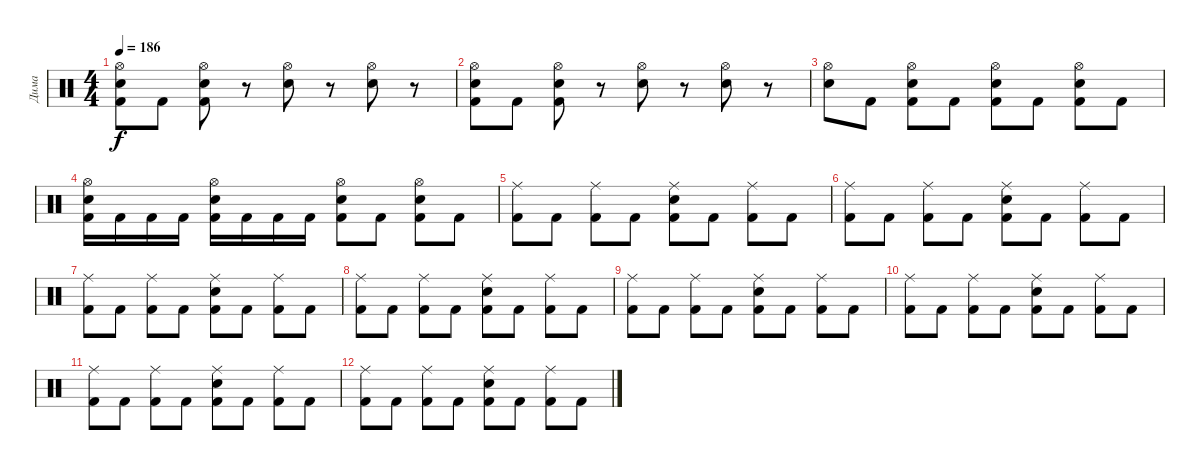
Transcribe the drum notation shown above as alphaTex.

\track ("Дима" "Дима") {instrument percussion}
\staff {score}
\articulation defaults
\ts (4 4)
\tempo 186
\clef neutral
\ks c
("Hi-Hat (open)" "Snare (hit) 2" "Kick (hit) 2").8{dy f} "Kick (hit) 2".8 ("Hi-Hat (open)" "Snare (hit) 2" "Kick (hit) 2").8 r.8 ("Hi-Hat (open)" "Snare (hit) 2").8 r.8 ("Hi-Hat (open)" "Snare (hit) 2").8 r.8 |
("Hi-Hat (open)" "Snare (hit) 2" "Kick (hit) 2").8 "Kick (hit) 2".8 ("Hi-Hat (open)" "Snare (hit) 2" "Kick (hit) 2").8 r.8 ("Hi-Hat (open)" "Snare (hit) 2").8 r.8 ("Hi-Hat (open)" "Snare (hit) 2").8 r.8 |
("Hi-Hat (open)" "Snare (hit) 2").8 "Kick (hit) 2".8 ("Hi-Hat (open)" "Snare (hit) 2" "Kick (hit) 2").8 "Kick (hit) 2".8 ("Hi-Hat (open)" "Snare (hit) 2" "Kick (hit) 2").8 "Kick (hit) 2".8 ("Hi-Hat (open)" "Snare (hit) 2" "Kick (hit) 2").8 "Kick (hit) 2".8 |
("Hi-Hat (open)" "Snare (hit) 2" "Kick (hit) 2").16 "Kick (hit) 2".16 "Kick (hit) 2".16 "Kick (hit) 2".16 ("Hi-Hat (open)" "Snare (hit) 2" "Kick (hit) 2").16 "Kick (hit) 2".16 "Kick (hit) 2".16 "Kick (hit) 2".16 ("Hi-Hat (open)" "Snare (hit) 2" "Kick (hit) 2").8 "Kick (hit) 2".8 ("Hi-Hat (open)" "Snare (hit) 2" "Kick (hit) 2").8 "Kick (hit) 2".8 |
("Kick (hit) 2" "Ride (middle)").8 "Kick (hit) 2".8 ("Kick (hit) 2" "Ride (middle)").8 "Kick (hit) 2".8 ("Kick (hit) 2" "Snare (hit) 2" "Ride (middle)").8 "Kick (hit) 2".8 ("Kick (hit) 2" "Ride (middle)").8 "Kick (hit) 2".8 |
("Kick (hit) 2" "Ride (middle)").8 "Kick (hit) 2".8 ("Kick (hit) 2" "Ride (middle)").8 "Kick (hit) 2".8 ("Kick (hit) 2" "Snare (hit) 2" "Ride (middle)").8 "Kick (hit) 2".8 ("Kick (hit) 2" "Ride (middle)").8 "Kick (hit) 2".8 |
("Kick (hit) 2" "Ride (middle)").8 "Kick (hit) 2".8 ("Kick (hit) 2" "Ride (middle)").8 "Kick (hit) 2".8 ("Kick (hit) 2" "Snare (hit) 2" "Ride (middle)").8 "Kick (hit) 2".8 ("Kick (hit) 2" "Ride (middle)").8 "Kick (hit) 2".8 |
("Kick (hit) 2" "Ride (middle)").8 "Kick (hit) 2".8 ("Kick (hit) 2" "Ride (middle)").8 "Kick (hit) 2".8 ("Kick (hit) 2" "Snare (hit) 2" "Ride (middle)").8 "Kick (hit) 2".8 ("Kick (hit) 2" "Ride (middle)").8 "Kick (hit) 2".8 |
("Kick (hit) 2" "Ride (middle)").8 "Kick (hit) 2".8 ("Kick (hit) 2" "Ride (middle)").8 "Kick (hit) 2".8 ("Kick (hit) 2" "Snare (hit) 2" "Ride (middle)").8 "Kick (hit) 2".8 ("Kick (hit) 2" "Ride (middle)").8 "Kick (hit) 2".8 |
("Kick (hit) 2" "Ride (middle)").8 "Kick (hit) 2".8 ("Kick (hit) 2" "Ride (middle)").8 "Kick (hit) 2".8 ("Kick (hit) 2" "Snare (hit) 2" "Ride (middle)").8 "Kick (hit) 2".8 ("Kick (hit) 2" "Ride (middle)").8 "Kick (hit) 2".8 |
("Kick (hit) 2" "Ride (middle)").8 "Kick (hit) 2".8 ("Kick (hit) 2" "Ride (middle)").8 "Kick (hit) 2".8 ("Kick (hit) 2" "Snare (hit) 2" "Ride (middle)").8 "Kick (hit) 2".8 ("Kick (hit) 2" "Ride (middle)").8 "Kick (hit) 2".8 |
("Kick (hit) 2" "Ride (middle)").8 "Kick (hit) 2".8 ("Kick (hit) 2" "Ride (middle)").8 "Kick (hit) 2".8 ("Kick (hit) 2" "Snare (hit) 2" "Ride (middle)").8 "Kick (hit) 2".8 ("Kick (hit) 2" "Ride (middle)").8 "Kick (hit) 2".8
